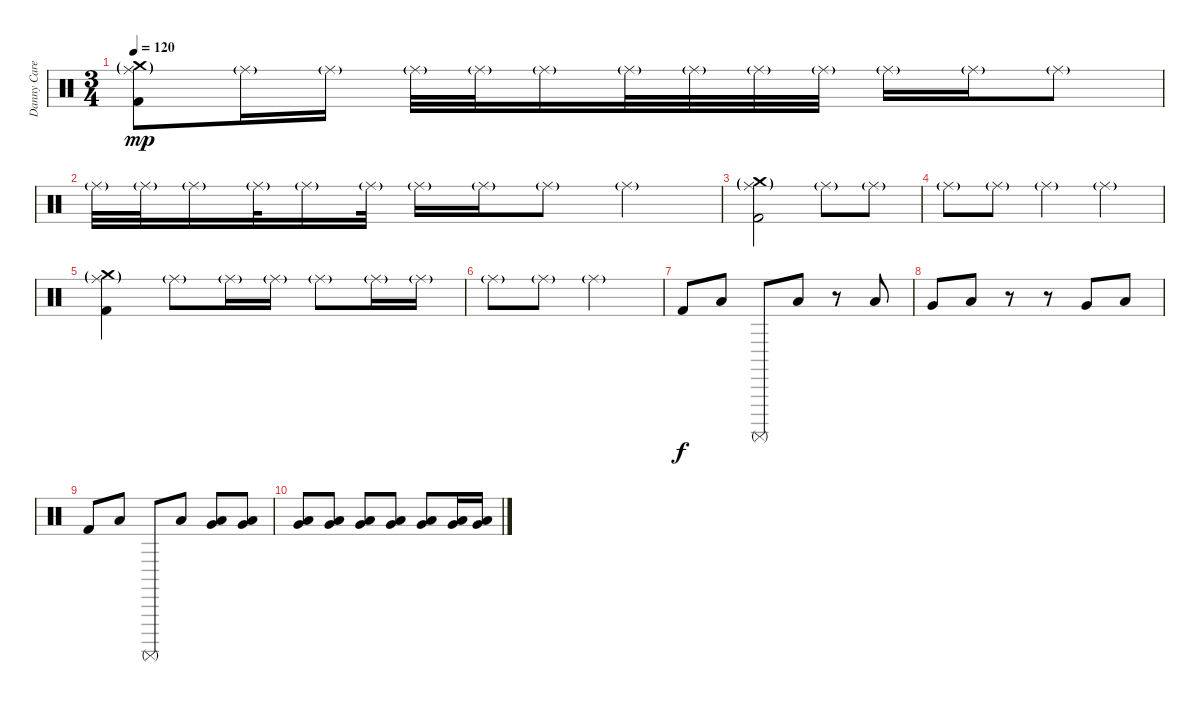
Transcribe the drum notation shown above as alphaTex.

\track ("Danny Carey" "Danny Care") {instrument percussion}
\staff {score}
\articulation defaults
\ts (3 4)
\tempo 120
\clef neutral
\ks c
("Crash medium (hit)"{g} "Ride (middle)"{g} "Kick (hit) 2").8{dy mp} "Ride (middle)"{g}.16 "Ride (middle)"{g}.16 "Ride (middle)"{g}.32 "Ride (middle)"{g}.32 "Ride (middle)"{g}.16 "Ride (middle)"{g}.32 "Ride (middle)"{g}.32 "Ride (middle)"{g}.32 "Ride (middle)"{g}.32 "Ride (middle)"{g}.16 "Ride (middle)"{g}.16 "Ride (middle)"{g}.8 |
"Ride (middle)"{g}.32 "Ride (middle)"{g}.32 "Ride (middle)"{g}.16 "Ride (middle)"{g}.32 "Ride (middle)"{g}.16 "Ride (middle)"{g}.32 "Ride (middle)"{g}.16 "Ride (middle)"{g}.16 "Ride (middle)"{g}.8 "Ride (middle)"{g}.4 |
("Crash medium (hit)"{g} "Ride (middle)"{g} "Kick (hit) 2").2 "Ride (middle)"{g}.8 "Ride (middle)"{g}.8 |
"Ride (middle)"{g}.8 "Ride (middle)"{g}.8 "Ride (middle)"{g}.4 "Ride (middle)"{g}.4 |
("Crash medium (hit)"{g} "Ride (middle)"{g} "Kick (hit) 2").4 "Ride (middle)"{g}.8 "Ride (middle)"{g}.16 "Ride (middle)"{g}.16 "Ride (middle)"{g}.8 "Ride (middle)"{g}.16 "Ride (middle)"{g}.16 |
"Ride (middle)"{g}.8 "Ride (middle)"{g}.8 "Ride (middle)"{g}.2 |
"Kick (hit) 2".8{dy f} "Low Tom (hit)".8 "Surdo (mute)".8 "Low Tom (hit)".8 r.8 "Low Tom (hit)".8 |
"Very Low Tom (hit)".8 "Low Tom (hit)".8 r.8 r.8 "Very Low Tom (hit)".8 "Low Floor Tom (hit)".8 |
"Kick (hit) 2".8 "Low Tom (hit)".8 "Surdo (mute)".8 "Low Tom (hit)".8 ("Very Low Tom (hit)" "Low Floor Tom (hit)").8 ("Very Low Tom (hit)" "Low Floor Tom (hit)").8 |
("Very Low Tom (hit)" "Low Floor Tom (hit)").8 ("Very Low Tom (hit)" "Low Floor Tom (hit)").8 ("Very Low Tom (hit)" "Low Floor Tom (hit)").8 ("Very Low Tom (hit)" "Low Floor Tom (hit)").8 ("Very Low Tom (hit)" "Low Floor Tom (hit)").8 ("Very Low Tom (hit)" "Low Floor Tom (hit)").16 ("Very Low Tom (hit)" "Low Floor Tom (hit)").16
